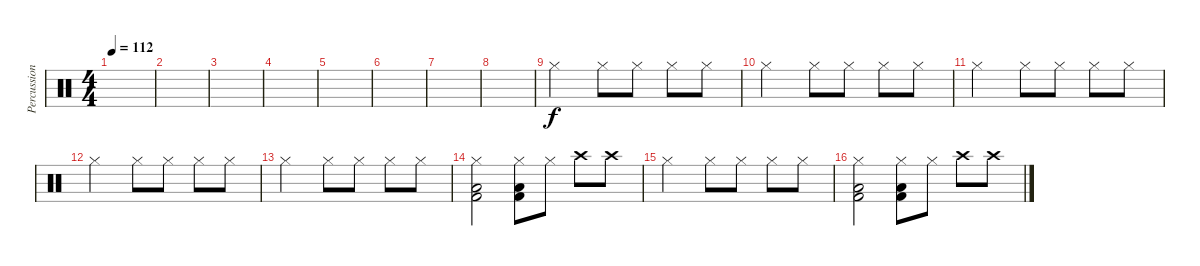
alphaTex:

\track ("Percussion" "Percussion") {instrument percussion}
\staff {score}
\articulation defaults
\ts (4 4)
\tempo 112
\clef neutral
\ks c
|
|
|
|
|
|
|
|
"Hi-Hat (closed)".2 "Hi-Hat (closed)".8 "Hi-Hat (closed)".8 "Hi-Hat (closed)".8 "Hi-Hat (closed)".8 |
"Hi-Hat (closed)".2 "Hi-Hat (closed)".8 "Hi-Hat (closed)".8 "Hi-Hat (closed)".8 "Hi-Hat (closed)".8 |
"Hi-Hat (closed)".2 "Hi-Hat (closed)".8 "Hi-Hat (closed)".8 "Hi-Hat (closed)".8 "Hi-Hat (closed)".8 |
"Hi-Hat (closed)".2 "Hi-Hat (closed)".8 "Hi-Hat (closed)".8 "Hi-Hat (closed)".8 "Hi-Hat (closed)".8 |
"Hi-Hat (closed)".2 "Hi-Hat (closed)".8 "Hi-Hat (closed)".8 "Hi-Hat (closed)".8 "Hi-Hat (closed)".8 |
("Hi-Hat (closed)" "Low Floor Tom (hit)" "Kick (hit) 2").2 ("Hi-Hat (closed)" "Low Floor Tom (hit)" "Kick (hit) 2").8 "Hi-Hat (closed)".8 "Crash high (hit)".8 "Crash high (hit)".8 |
"Hi-Hat (closed)".2 "Hi-Hat (closed)".8 "Hi-Hat (closed)".8 "Hi-Hat (closed)".8 "Hi-Hat (closed)".8 |
("Hi-Hat (closed)" "Low Floor Tom (hit)" "Kick (hit) 2").2 ("Hi-Hat (closed)" "Low Floor Tom (hit)" "Kick (hit) 2").8 "Hi-Hat (closed)".8 "Crash high (hit)".8 "Crash high (hit)".8
